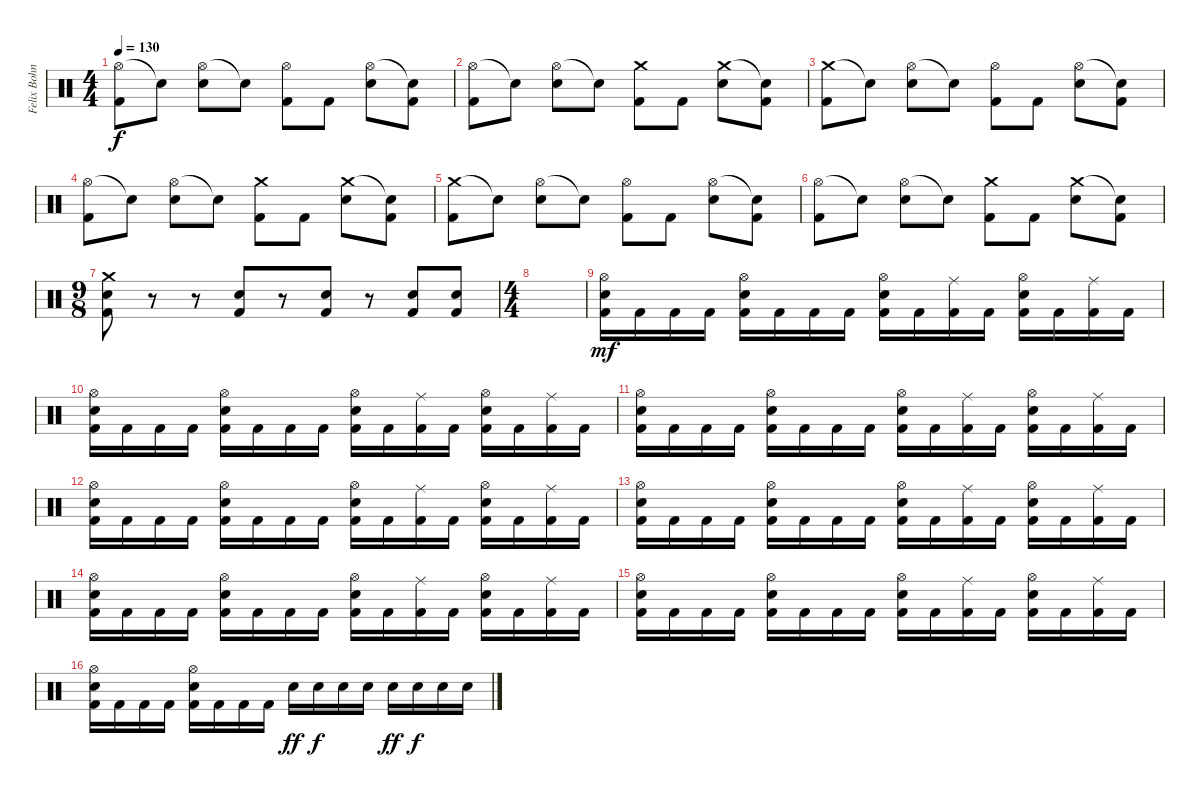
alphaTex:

\track ("Felix Bohnke" "Felix Bohn") {instrument percussion}
\staff {score}
\articulation defaults
\ts (4 4)
\tempo 130
\clef neutral
\ks c
("Hi-Hat (open)" "Kick (hit) 2").8{dy f} "Snare (hit)"{t}.8 ("Hi-Hat (open)" "Electric Snare (hit)").8 "Snare (hit)"{t}.8 ("Hi-Hat (open)" "Kick (hit) 2").8 "Kick (hit) 2".8 ("Hi-Hat (open)" "Electric Snare (hit)").8 ("Snare (hit)"{t} "Kick (hit) 2").8 |
("Hi-Hat (open)" "Kick (hit) 2").8 "Snare (hit)"{t}.8 ("Hi-Hat (open)" "Electric Snare (hit)").8 "Snare (hit)"{t}.8 ("Crash medium (hit)" "Kick (hit) 2").8 "Kick (hit) 2".8 ("Crash medium (hit)" "Electric Snare (hit)").8 ("Snare (hit)"{t} "Kick (hit) 2").8 |
("Crash medium (hit)" "Kick (hit) 2").8 "Snare (hit)"{t}.8 ("Hi-Hat (open)" "Electric Snare (hit)").8 "Snare (hit)"{t}.8 ("Hi-Hat (open)" "Kick (hit) 2").8 "Kick (hit) 2".8 ("Hi-Hat (open)" "Electric Snare (hit)").8 ("Snare (hit)"{t} "Kick (hit) 2").8 |
("Hi-Hat (open)" "Kick (hit) 2").8 "Snare (hit)"{t}.8 ("Hi-Hat (open)" "Electric Snare (hit)").8 "Snare (hit)"{t}.8 ("Crash medium (hit)" "Kick (hit) 2").8 "Kick (hit) 2".8 ("Crash medium (hit)" "Electric Snare (hit)").8 ("Snare (hit)"{t} "Kick (hit) 2").8 |
("Crash medium (hit)" "Kick (hit) 2").8 "Snare (hit)"{t}.8 ("Hi-Hat (open)" "Electric Snare (hit)").8 "Snare (hit)"{t}.8 ("Hi-Hat (open)" "Kick (hit) 2").8 "Kick (hit) 2".8 ("Hi-Hat (open)" "Electric Snare (hit)").8 ("Snare (hit)"{t} "Kick (hit) 2").8 |
("Hi-Hat (open)" "Kick (hit) 2").8 "Snare (hit)"{t}.8 ("Hi-Hat (open)" "Electric Snare (hit)").8 "Snare (hit)"{t}.8 ("Crash medium (hit)" "Kick (hit) 2").8 "Kick (hit) 2".8 ("Crash medium (hit)" "Electric Snare (hit)").8 ("Snare (hit)"{t} "Kick (hit) 2").8 |
\ts (9 8)
("Crash medium (hit)" "Electric Snare (hit)" "Kick (hit) 2").8 r.8 r.8 ("Electric Snare (hit)" "Kick (hit) 2").8 r.8 ("Electric Snare (hit)" "Kick (hit) 2").8 r.8 ("Electric Snare (hit)" "Kick (hit) 2").8 ("Electric Snare (hit)" "Kick (hit) 2").8 |
\ts (4 4)
|
("Hi-Hat (open)" "Electric Snare (hit)" "Kick (hit) 2").16{dy mf} "Kick (hit) 2".16 "Kick (hit) 2".16 "Kick (hit) 2".16 ("Hi-Hat (open)" "Electric Snare (hit)" "Kick (hit) 2").16 "Kick (hit) 2".16 "Kick (hit) 2".16 "Kick (hit) 2".16 ("Hi-Hat (open)" "Electric Snare (hit)" "Kick (hit) 2").16 "Kick (hit) 2".16 ("Ride (middle)" "Kick (hit) 2").16 "Kick (hit) 2".16 ("Hi-Hat (open)" "Electric Snare (hit)" "Kick (hit) 2").16 "Kick (hit) 2".16 ("Ride (middle)" "Kick (hit) 2").16 "Kick (hit) 2".16 |
("Hi-Hat (open)" "Electric Snare (hit)" "Kick (hit) 2").16 "Kick (hit) 2".16 "Kick (hit) 2".16 "Kick (hit) 2".16 ("Hi-Hat (open)" "Electric Snare (hit)" "Kick (hit) 2").16 "Kick (hit) 2".16 "Kick (hit) 2".16 "Kick (hit) 2".16 ("Hi-Hat (open)" "Electric Snare (hit)" "Kick (hit) 2").16 "Kick (hit) 2".16 ("Ride (middle)" "Kick (hit) 2").16 "Kick (hit) 2".16 ("Hi-Hat (open)" "Electric Snare (hit)" "Kick (hit) 2").16 "Kick (hit) 2".16 ("Ride (middle)" "Kick (hit) 2").16 "Kick (hit) 2".16 |
("Hi-Hat (open)" "Electric Snare (hit)" "Kick (hit) 2").16 "Kick (hit) 2".16 "Kick (hit) 2".16 "Kick (hit) 2".16 ("Hi-Hat (open)" "Electric Snare (hit)" "Kick (hit) 2").16 "Kick (hit) 2".16 "Kick (hit) 2".16 "Kick (hit) 2".16 ("Hi-Hat (open)" "Electric Snare (hit)" "Kick (hit) 2").16 "Kick (hit) 2".16 ("Ride (middle)" "Kick (hit) 2").16 "Kick (hit) 2".16 ("Hi-Hat (open)" "Electric Snare (hit)" "Kick (hit) 2").16 "Kick (hit) 2".16 ("Ride (middle)" "Kick (hit) 2").16 "Kick (hit) 2".16 |
("Hi-Hat (open)" "Electric Snare (hit)" "Kick (hit) 2").16 "Kick (hit) 2".16 "Kick (hit) 2".16 "Kick (hit) 2".16 ("Hi-Hat (open)" "Electric Snare (hit)" "Kick (hit) 2").16 "Kick (hit) 2".16 "Kick (hit) 2".16 "Kick (hit) 2".16 ("Hi-Hat (open)" "Electric Snare (hit)" "Kick (hit) 2").16 "Kick (hit) 2".16 ("Ride (middle)" "Kick (hit) 2").16 "Kick (hit) 2".16 ("Hi-Hat (open)" "Electric Snare (hit)" "Kick (hit) 2").16 "Kick (hit) 2".16 ("Ride (middle)" "Kick (hit) 2").16 "Kick (hit) 2".16 |
("Hi-Hat (open)" "Electric Snare (hit)" "Kick (hit) 2").16 "Kick (hit) 2".16 "Kick (hit) 2".16 "Kick (hit) 2".16 ("Hi-Hat (open)" "Electric Snare (hit)" "Kick (hit) 2").16 "Kick (hit) 2".16 "Kick (hit) 2".16 "Kick (hit) 2".16 ("Hi-Hat (open)" "Electric Snare (hit)" "Kick (hit) 2").16 "Kick (hit) 2".16 ("Ride (middle)" "Kick (hit) 2").16 "Kick (hit) 2".16 ("Hi-Hat (open)" "Electric Snare (hit)" "Kick (hit) 2").16 "Kick (hit) 2".16 ("Ride (middle)" "Kick (hit) 2").16 "Kick (hit) 2".16 |
("Hi-Hat (open)" "Electric Snare (hit)" "Kick (hit) 2").16 "Kick (hit) 2".16 "Kick (hit) 2".16 "Kick (hit) 2".16 ("Hi-Hat (open)" "Electric Snare (hit)" "Kick (hit) 2").16 "Kick (hit) 2".16 "Kick (hit) 2".16 "Kick (hit) 2".16 ("Hi-Hat (open)" "Electric Snare (hit)" "Kick (hit) 2").16 "Kick (hit) 2".16 ("Ride (middle)" "Kick (hit) 2").16 "Kick (hit) 2".16 ("Hi-Hat (open)" "Electric Snare (hit)" "Kick (hit) 2").16 "Kick (hit) 2".16 ("Ride (middle)" "Kick (hit) 2").16 "Kick (hit) 2".16 |
("Hi-Hat (open)" "Electric Snare (hit)" "Kick (hit) 2").16 "Kick (hit) 2".16 "Kick (hit) 2".16 "Kick (hit) 2".16 ("Hi-Hat (open)" "Electric Snare (hit)" "Kick (hit) 2").16 "Kick (hit) 2".16 "Kick (hit) 2".16 "Kick (hit) 2".16 ("Hi-Hat (open)" "Electric Snare (hit)" "Kick (hit) 2").16 "Kick (hit) 2".16 ("Ride (middle)" "Kick (hit) 2").16 "Kick (hit) 2".16 ("Hi-Hat (open)" "Electric Snare (hit)" "Kick (hit) 2").16 "Kick (hit) 2".16 ("Ride (middle)" "Kick (hit) 2").16 "Kick (hit) 2".16 |
("Hi-Hat (open)" "Electric Snare (hit)" "Kick (hit) 2").16 "Kick (hit) 2".16 "Kick (hit) 2".16 "Kick (hit) 2".16 ("Hi-Hat (open)" "Electric Snare (hit)" "Kick (hit) 2").16 "Kick (hit) 2".16 "Kick (hit) 2".16 "Kick (hit) 2".16 "Electric Snare (hit)".16{dy ff} "Electric Snare (hit)".16{dy f} "Electric Snare (hit)".16 "Electric Snare (hit)".16 "Electric Snare (hit)".16{dy ff} "Electric Snare (hit)".16{dy f} "Electric Snare (hit)".16 "Electric Snare (hit)".16
